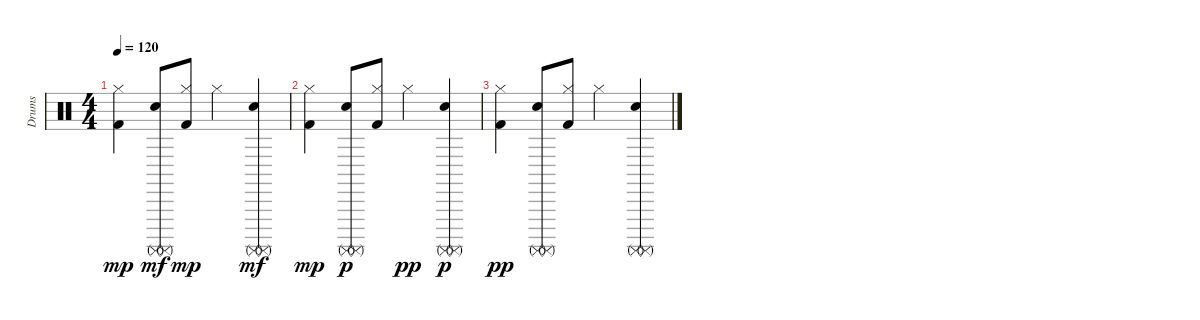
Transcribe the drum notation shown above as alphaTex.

\track ("Drums" "Drums") {instrument percussion}
\staff {score}
\articulation defaults
\ts (4 4)
\tempo 120
\clef neutral
\ks c
("Kick (hit) 2" "Hi-Hat (closed)").4{dy mp} ("Snare (hit) 2" "Surdo (mute)" "Surdo (mute)").8{dy mf} ("Kick (hit) 2" "Hi-Hat (closed)").8{dy mp} "Hi-Hat (closed)".4{volume 13} ("Snare (hit) 2" "Surdo (mute)" "Surdo (mute)").4{dy mf} |
("Kick (hit) 2" "Hi-Hat (closed)").4{dy mp} ("Snare (hit) 2" "Surdo (mute)" "Surdo (mute)").8{dy p} ("Kick (hit) 2" "Hi-Hat (closed)").8 "Hi-Hat (closed)".4{dy pp volume 13} ("Snare (hit) 2" "Surdo (mute)" "Surdo (mute)").4{dy p} |
("Kick (hit) 2" "Hi-Hat (closed)").4{dy pp} ("Snare (hit) 2" "Surdo (mute)" "Surdo (mute)").8 ("Kick (hit) 2" "Hi-Hat (closed)").8 "Hi-Hat (closed)".4{volume 13} ("Snare (hit) 2" "Surdo (mute)" "Surdo (mute)").4
